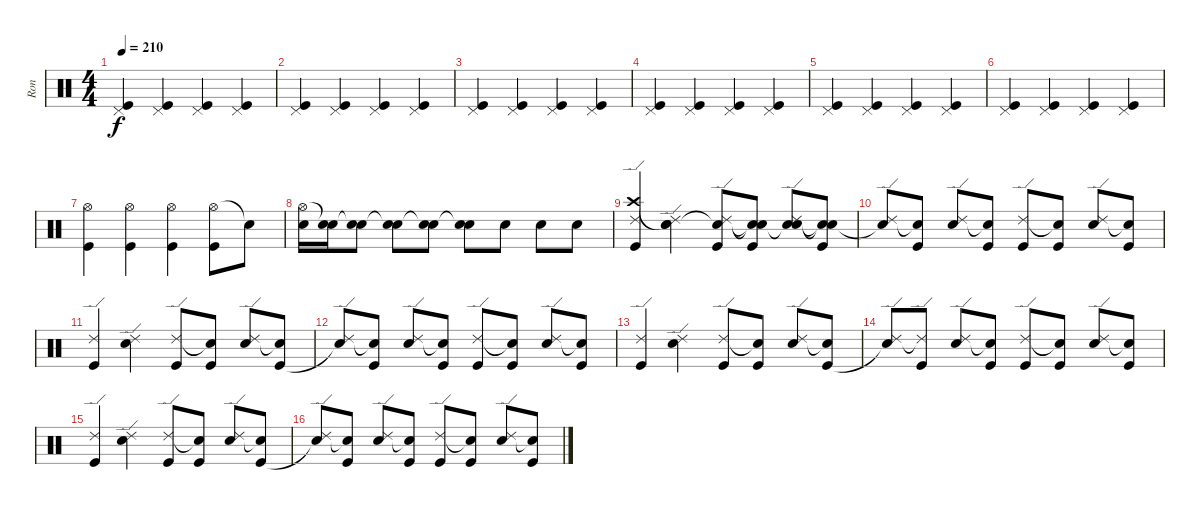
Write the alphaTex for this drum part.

\track ("Ron" "Ron") {instrument percussion}
\staff {score}
\articulation defaults
\ts (4 4)
\tempo 210
\clef neutral
\ks c
("Pedal Hi-Hat (hit)" "Kick (hit)").4{dy f} ("Pedal Hi-Hat (hit)" "Kick (hit)").4 ("Pedal Hi-Hat (hit)" "Kick (hit)").4 ("Pedal Hi-Hat (hit)" "Kick (hit)").4 |
("Pedal Hi-Hat (hit)" "Kick (hit)").4 ("Pedal Hi-Hat (hit)" "Kick (hit)").4 ("Pedal Hi-Hat (hit)" "Kick (hit)").4 ("Pedal Hi-Hat (hit)" "Kick (hit)").4 |
("Pedal Hi-Hat (hit)" "Kick (hit)").4 ("Pedal Hi-Hat (hit)" "Kick (hit)").4 ("Pedal Hi-Hat (hit)" "Kick (hit)").4 ("Pedal Hi-Hat (hit)" "Kick (hit)").4 |
("Pedal Hi-Hat (hit)" "Kick (hit)").4 ("Pedal Hi-Hat (hit)" "Kick (hit)").4 ("Pedal Hi-Hat (hit)" "Kick (hit)").4 ("Pedal Hi-Hat (hit)" "Kick (hit)").4 |
("Pedal Hi-Hat (hit)" "Kick (hit)").4 ("Pedal Hi-Hat (hit)" "Kick (hit)").4 ("Pedal Hi-Hat (hit)" "Kick (hit)").4 ("Pedal Hi-Hat (hit)" "Kick (hit)").4 |
("Pedal Hi-Hat (hit)" "Kick (hit)").4 ("Pedal Hi-Hat (hit)" "Kick (hit)").4 ("Pedal Hi-Hat (hit)" "Kick (hit)").4 ("Pedal Hi-Hat (hit)" "Kick (hit)").4 |
("Hi-Hat (open)" "Kick (hit)").4 ("Hi-Hat (open)" "Kick (hit)").4 ("Hi-Hat (open)" "Kick (hit)").4 ("Hi-Hat (open)" "Kick (hit)").8 "Electric Snare (hit)"{t}.8 |
("Hi-Hat (open)" "Electric Snare (hit)").16 ("Snare (hit)"{t} "Electric Snare (hit)").16 ("Snare (hit)"{t} "Electric Snare (hit)").8 ("Snare (hit)"{t} "Electric Snare (hit)").8 ("Snare (hit)"{t} "Electric Snare (hit)").8 ("Snare (hit)"{t} "Electric Snare (hit)").8 "Electric Snare (hit)".8 "Electric Snare (hit)".8 "Electric Snare (hit)".8 |
("Crash high (hit)" "Ride (edge) 2" "Kick (hit)").4 ("Snare (hit)"{t} "Ride (edge) 2" "Electric Snare (hit)").4 ("Snare (hit)"{t} "Ride (edge) 2" "Kick (hit)").8 ("Snare (hit)"{t} "Snare (hit)"{t} "Kick (hit)").8 ("Snare (hit)"{t} "Ride (edge) 2" "Electric Snare (hit)").8 ("Snare (hit)"{t} "Snare (hit)"{t} "Kick (hit)").8 |
("Ride (edge) 2" "Snare (hit)"{t}).8 ("Snare (hit)"{t} "Kick (hit)").8 ("Ride (edge) 2" "Electric Snare (hit)").8 ("Snare (hit)"{t} "Kick (hit)").8 ("Ride (edge) 2" "Kick (hit)").8 ("Snare (hit)"{t} "Kick (hit)").8 ("Ride (edge) 2" "Electric Snare (hit)").8 ("Snare (hit)"{t} "Kick (hit)").8 |
("Ride (edge) 2" "Kick (hit)").4 ("Ride (edge) 2" "Electric Snare (hit)").4 ("Ride (edge) 2" "Kick (hit)").8 ("Snare (hit)"{t} "Kick (hit)").8 ("Ride (edge) 2" "Electric Snare (hit)").8 ("Snare (hit)"{t} "Kick (hit)").8 |
("Ride (edge) 2" "Snare (hit)"{t}).8 ("Snare (hit)"{t} "Kick (hit)").8 ("Ride (edge) 2" "Electric Snare (hit)").8 ("Snare (hit)"{t} "Kick (hit)").8 ("Ride (edge) 2" "Kick (hit)").8 ("Snare (hit)"{t} "Kick (hit)").8 ("Ride (edge) 2" "Electric Snare (hit)").8 ("Snare (hit)"{t} "Kick (hit)").8 |
("Ride (edge) 2" "Kick (hit)").4 ("Ride (edge) 2" "Electric Snare (hit)").4 ("Ride (edge) 2" "Kick (hit)").8 ("Snare (hit)"{t} "Kick (hit)").8 ("Ride (edge) 2" "Electric Snare (hit)").8 ("Snare (hit)"{t} "Kick (hit)").8 |
("Ride (edge) 2" "Snare (hit)"{t}).8 ("Ride (edge) 2"{t} "Kick (hit)").8 ("Ride (edge) 2" "Electric Snare (hit)").8 ("Snare (hit)"{t} "Kick (hit)").8 ("Ride (edge) 2" "Kick (hit)").8 ("Snare (hit)"{t} "Kick (hit)").8 ("Ride (edge) 2" "Electric Snare (hit)").8 ("Snare (hit)"{t} "Kick (hit)").8 |
("Ride (edge) 2" "Kick (hit)").4 ("Ride (edge) 2" "Electric Snare (hit)").4 ("Ride (edge) 2" "Kick (hit)").8 ("Snare (hit)"{t} "Kick (hit)").8 ("Ride (edge) 2" "Electric Snare (hit)").8 ("Snare (hit)"{t} "Kick (hit)").8 |
("Ride (edge) 2" "Snare (hit)"{t}).8 ("Snare (hit)"{t} "Kick (hit)").8 ("Ride (edge) 2" "Electric Snare (hit)").8 ("Snare (hit)"{t} "Kick (hit)").8 ("Ride (edge) 2" "Kick (hit)").8 ("Snare (hit)"{t} "Kick (hit)").8 ("Ride (edge) 2" "Electric Snare (hit)").8 ("Snare (hit)"{t} "Kick (hit)").8
